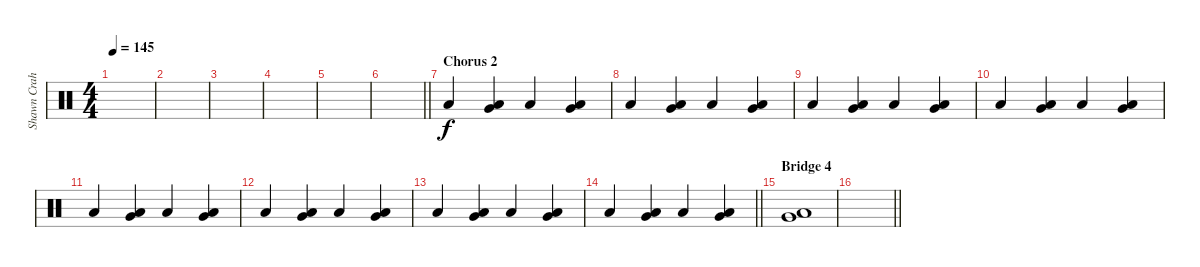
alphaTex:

\track ("Shawn Crahan" "Shawn Crah") {instrument percussion}
\staff {score}
\articulation defaults
\ts (4 4)
\tempo 145
\clef neutral
\ks c
|
|
|
|
|
\barLineRight lightlight
|
\section ("" "Chorus 2")
"Low Floor Tom (hit)".4{dy f} ("Very Low Tom (hit)" "Low Floor Tom (hit)").4 "Low Floor Tom (hit)".4 ("Very Low Tom (hit)" "Low Floor Tom (hit)").4 |
"Low Floor Tom (hit)".4 ("Very Low Tom (hit)" "Low Floor Tom (hit)").4 "Low Floor Tom (hit)".4 ("Very Low Tom (hit)" "Low Floor Tom (hit)").4 |
"Low Floor Tom (hit)".4 ("Very Low Tom (hit)" "Low Floor Tom (hit)").4 "Low Floor Tom (hit)".4 ("Very Low Tom (hit)" "Low Floor Tom (hit)").4 |
"Low Floor Tom (hit)".4 ("Very Low Tom (hit)" "Low Floor Tom (hit)").4 "Low Floor Tom (hit)".4 ("Very Low Tom (hit)" "Low Floor Tom (hit)").4 |
"Low Floor Tom (hit)".4 ("Very Low Tom (hit)" "Low Floor Tom (hit)").4 "Low Floor Tom (hit)".4 ("Very Low Tom (hit)" "Low Floor Tom (hit)").4 |
"Low Floor Tom (hit)".4 ("Very Low Tom (hit)" "Low Floor Tom (hit)").4 "Low Floor Tom (hit)".4 ("Very Low Tom (hit)" "Low Floor Tom (hit)").4 |
"Low Floor Tom (hit)".4 ("Very Low Tom (hit)" "Low Floor Tom (hit)").4 "Low Floor Tom (hit)".4 ("Very Low Tom (hit)" "Low Floor Tom (hit)").4 |
\barLineRight lightlight "Low Floor Tom (hit)".4
("Very Low Tom (hit)" "Low Floor Tom (hit)").4 "Low Floor Tom (hit)".4 ("Very Low Tom (hit)" "Low Floor Tom (hit)").4 |
\section ("" "Bridge 4")
("Very Low Tom (hit)" "Low Floor Tom (hit)").1 |
\barLineRight lightlight
